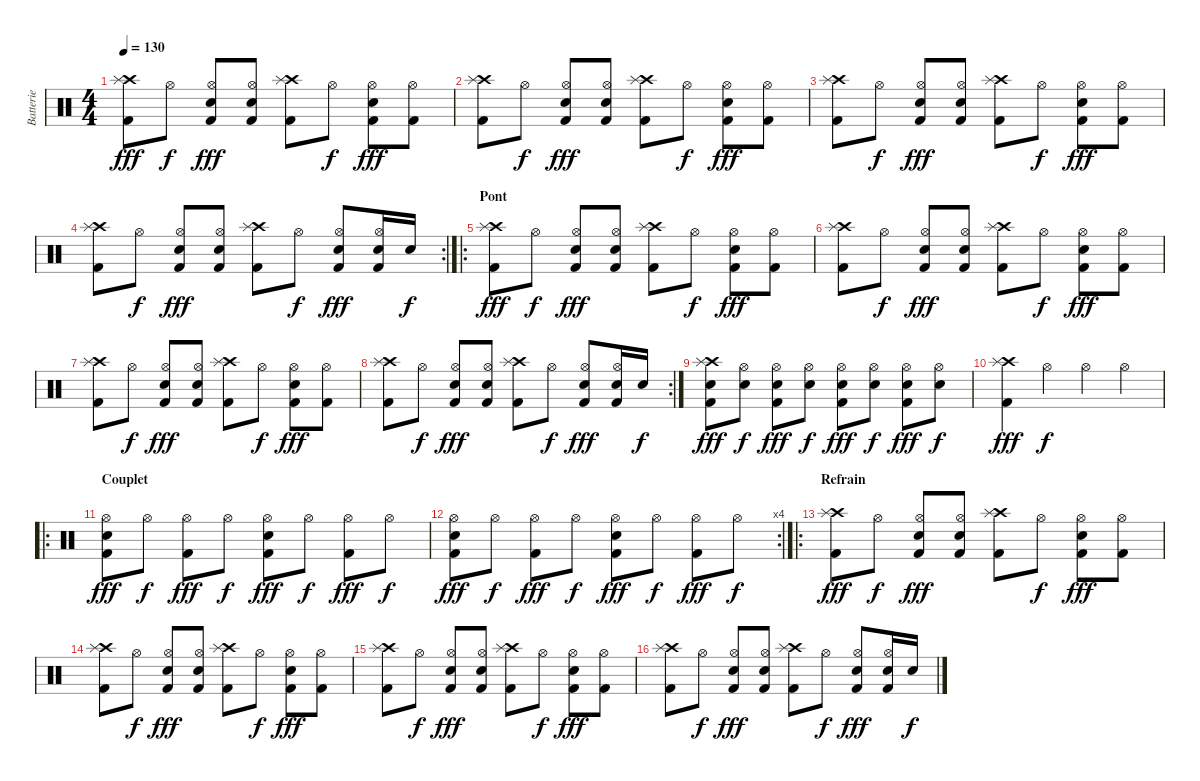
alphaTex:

\track ("Batterie" "Batterie") {instrument percussion}
\staff {score}
\articulation defaults
\ts (4 4)
\tempo 130
\clef neutral
\ks c
("Crash high (hit)" "Kick (hit) 2" "Splash (hit)").8{dy fff} "Hi-Hat (open)".8{dy f} ("Hi-Hat (open)" "Kick (hit) 2" "Electric Snare (hit)").8{dy fff} ("Hi-Hat (open)" "Kick (hit) 2" "Electric Snare (hit)").8 ("Crash high (hit)" "Kick (hit) 2" "Splash (hit)").8 "Hi-Hat (open)".8{dy f} ("Hi-Hat (open)" "Kick (hit) 2" "Electric Snare (hit)").8{dy fff} ("Hi-Hat (open)" "Kick (hit) 2").8 |
("Crash high (hit)" "Kick (hit) 2" "Splash (hit)").8 "Hi-Hat (open)".8{dy f} ("Hi-Hat (open)" "Kick (hit) 2" "Electric Snare (hit)").8{dy fff} ("Hi-Hat (open)" "Kick (hit) 2" "Electric Snare (hit)").8 ("Crash high (hit)" "Kick (hit) 2" "Splash (hit)").8 "Hi-Hat (open)".8{dy f} ("Hi-Hat (open)" "Kick (hit) 2" "Electric Snare (hit)").8{dy fff} ("Hi-Hat (open)" "Kick (hit) 2").8 |
("Crash high (hit)" "Kick (hit) 2" "Splash (hit)").8 "Hi-Hat (open)".8{dy f} ("Hi-Hat (open)" "Kick (hit) 2" "Electric Snare (hit)").8{dy fff} ("Hi-Hat (open)" "Kick (hit) 2" "Electric Snare (hit)").8 ("Crash high (hit)" "Kick (hit) 2" "Splash (hit)").8 "Hi-Hat (open)".8{dy f} ("Hi-Hat (open)" "Kick (hit) 2" "Electric Snare (hit)").8{dy fff} ("Hi-Hat (open)" "Kick (hit) 2").8 |
\rc 2
("Crash high (hit)" "Kick (hit) 2" "Splash (hit)").8 "Hi-Hat (open)".8{dy f} ("Hi-Hat (open)" "Kick (hit) 2" "Electric Snare (hit)").8{dy fff} ("Hi-Hat (open)" "Kick (hit) 2" "Electric Snare (hit)").8 ("Crash high (hit)" "Kick (hit) 2" "Splash (hit)").8 "Hi-Hat (open)".8{dy f} ("Hi-Hat (open)" "Kick (hit) 2" "Electric Snare (hit)").8{dy fff} ("Hi-Hat (open)" "Kick (hit) 2" "Electric Snare (hit)").16 "Electric Snare (hit)".16{dy f} |
\ro
\section ("" "Pont")
("Crash high (hit)" "Kick (hit) 2" "Splash (hit)").8{dy fff} "Hi-Hat (open)".8{dy f} ("Hi-Hat (open)" "Kick (hit) 2" "Electric Snare (hit)").8{dy fff} ("Hi-Hat (open)" "Kick (hit) 2" "Electric Snare (hit)").8 ("Crash high (hit)" "Kick (hit) 2" "Splash (hit)").8 "Hi-Hat (open)".8{dy f} ("Hi-Hat (open)" "Kick (hit) 2" "Electric Snare (hit)").8{dy fff} ("Hi-Hat (open)" "Kick (hit) 2").8 |
("Crash high (hit)" "Kick (hit) 2" "Splash (hit)").8 "Hi-Hat (open)".8{dy f} ("Hi-Hat (open)" "Kick (hit) 2" "Electric Snare (hit)").8{dy fff} ("Hi-Hat (open)" "Kick (hit) 2" "Electric Snare (hit)").8 ("Crash high (hit)" "Kick (hit) 2" "Splash (hit)").8 "Hi-Hat (open)".8{dy f} ("Hi-Hat (open)" "Kick (hit) 2" "Electric Snare (hit)").8{dy fff} ("Hi-Hat (open)" "Kick (hit) 2").8 |
("Crash high (hit)" "Kick (hit) 2" "Splash (hit)").8 "Hi-Hat (open)".8{dy f} ("Hi-Hat (open)" "Kick (hit) 2" "Electric Snare (hit)").8{dy fff} ("Hi-Hat (open)" "Kick (hit) 2" "Electric Snare (hit)").8 ("Crash high (hit)" "Kick (hit) 2" "Splash (hit)").8 "Hi-Hat (open)".8{dy f} ("Hi-Hat (open)" "Kick (hit) 2" "Electric Snare (hit)").8{dy fff} ("Hi-Hat (open)" "Kick (hit) 2").8 |
\rc 2
("Crash high (hit)" "Kick (hit) 2" "Splash (hit)").8 "Hi-Hat (open)".8{dy f} ("Hi-Hat (open)" "Kick (hit) 2" "Electric Snare (hit)").8{dy fff} ("Hi-Hat (open)" "Kick (hit) 2" "Electric Snare (hit)").8 ("Crash high (hit)" "Kick (hit) 2" "Splash (hit)").8 "Hi-Hat (open)".8{dy f} ("Hi-Hat (open)" "Kick (hit) 2" "Electric Snare (hit)").8{dy fff} ("Hi-Hat (open)" "Kick (hit) 2" "Electric Snare (hit)").16 "Electric Snare (hit)".16{dy f} |
("Crash high (hit)" "Kick (hit) 2" "Electric Snare (hit)" "Splash (hit)").8{dy fff} ("Hi-Hat (open)" "Electric Snare (hit)").8{dy f} ("Hi-Hat (open)" "Kick (hit) 2" "Electric Snare (hit)").8{dy fff} ("Hi-Hat (open)" "Electric Snare (hit)").8{dy f} ("Hi-Hat (open)" "Kick (hit) 2" "Electric Snare (hit)").8{dy fff} ("Hi-Hat (open)" "Electric Snare (hit)").8{dy f} ("Hi-Hat (open)" "Kick (hit) 2" "Electric Snare (hit)").8{dy fff} ("Hi-Hat (open)" "Electric Snare (hit)").8{dy f} |
("Crash high (hit)" "Kick (hit) 2" "Splash (hit)").4{dy fff} "Hi-Hat (open)".4{dy f} "Hi-Hat (open)".4 "Hi-Hat (open)".4 |
\ro
\section ("" "Couplet")
("Hi-Hat (open)" "Kick (hit) 2" "Electric Snare (hit)").8{dy fff} "Hi-Hat (open)".8{dy f} ("Hi-Hat (open)" "Kick (hit) 2").8{dy fff} "Hi-Hat (open)".8{dy f} ("Hi-Hat (open)" "Kick (hit) 2" "Electric Snare (hit)").8{dy fff} "Hi-Hat (open)".8{dy f} ("Hi-Hat (open)" "Kick (hit) 2").8{dy fff} "Hi-Hat (open)".8{dy f} |
\rc 4
("Hi-Hat (open)" "Kick (hit) 2" "Electric Snare (hit)").8{dy fff} "Hi-Hat (open)".8{dy f} ("Hi-Hat (open)" "Kick (hit) 2").8{dy fff} "Hi-Hat (open)".8{dy f} ("Hi-Hat (open)" "Kick (hit) 2" "Electric Snare (hit)").8{dy fff} "Hi-Hat (open)".8{dy f} ("Hi-Hat (open)" "Kick (hit) 2").8{dy fff} "Hi-Hat (open)".8{dy f} |
\ro
\section ("" "Refrain")
("Crash high (hit)" "Kick (hit) 2" "Splash (hit)").8{dy fff} "Hi-Hat (open)".8{dy f} ("Hi-Hat (open)" "Kick (hit) 2" "Electric Snare (hit)").8{dy fff} ("Hi-Hat (open)" "Kick (hit) 2" "Electric Snare (hit)").8 ("Crash high (hit)" "Kick (hit) 2" "Splash (hit)").8 "Hi-Hat (open)".8{dy f} ("Hi-Hat (open)" "Kick (hit) 2" "Electric Snare (hit)").8{dy fff} ("Hi-Hat (open)" "Kick (hit) 2").8 |
("Crash high (hit)" "Kick (hit) 2" "Splash (hit)").8 "Hi-Hat (open)".8{dy f} ("Hi-Hat (open)" "Kick (hit) 2" "Electric Snare (hit)").8{dy fff} ("Hi-Hat (open)" "Kick (hit) 2" "Electric Snare (hit)").8 ("Crash high (hit)" "Kick (hit) 2" "Splash (hit)").8 "Hi-Hat (open)".8{dy f} ("Hi-Hat (open)" "Kick (hit) 2" "Electric Snare (hit)").8{dy fff} ("Hi-Hat (open)" "Kick (hit) 2").8 |
("Crash high (hit)" "Kick (hit) 2" "Splash (hit)").8 "Hi-Hat (open)".8{dy f} ("Hi-Hat (open)" "Kick (hit) 2" "Electric Snare (hit)").8{dy fff} ("Hi-Hat (open)" "Kick (hit) 2" "Electric Snare (hit)").8 ("Crash high (hit)" "Kick (hit) 2" "Splash (hit)").8 "Hi-Hat (open)".8{dy f} ("Hi-Hat (open)" "Kick (hit) 2" "Electric Snare (hit)").8{dy fff} ("Hi-Hat (open)" "Kick (hit) 2").8 |
("Crash high (hit)" "Kick (hit) 2" "Splash (hit)").8 "Hi-Hat (open)".8{dy f} ("Hi-Hat (open)" "Kick (hit) 2" "Electric Snare (hit)").8{dy fff} ("Hi-Hat (open)" "Kick (hit) 2" "Electric Snare (hit)").8 ("Crash high (hit)" "Kick (hit) 2" "Splash (hit)").8 "Hi-Hat (open)".8{dy f} ("Hi-Hat (open)" "Kick (hit) 2" "Electric Snare (hit)").8{dy fff} ("Hi-Hat (open)" "Kick (hit) 2" "Electric Snare (hit)").16 "Electric Snare (hit)".16{dy f}
